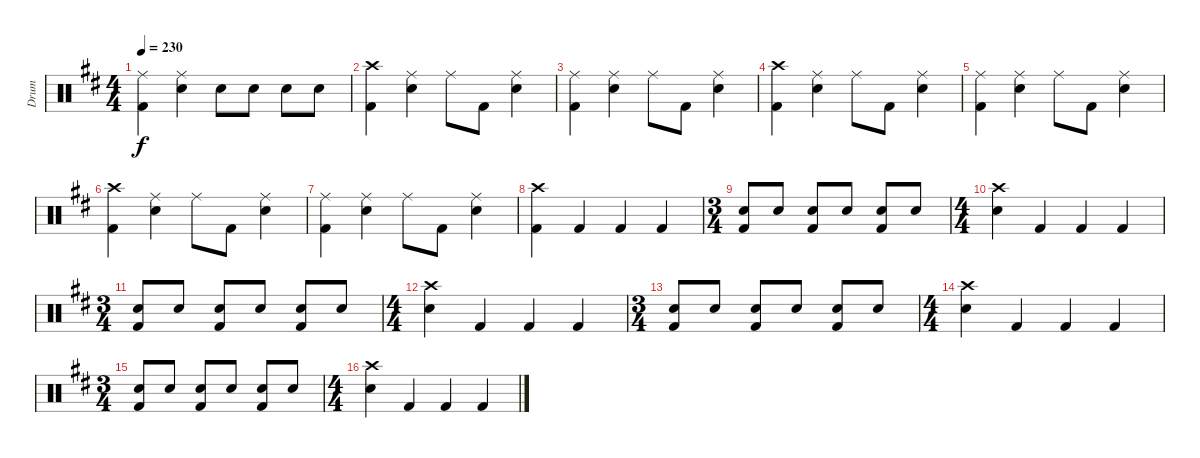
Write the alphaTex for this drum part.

\track ("Drum" "Drum") {instrument percussion}
\staff {score}
\articulation defaults
\ts (4 4)
\tempo 230
\clef neutral
\ks d
("Ride (middle)" "Kick (hit) 2").4{dy f} ("Ride (middle)" "Snare (hit) 2").4 "Snare (hit) 2".8 "Snare (hit) 2".8 "Snare (hit) 2".8 "Snare (hit) 2".8 |
("Crash high (hit)" "Kick (hit) 2").4 ("Ride (middle)" "Snare (hit) 2").4 "Ride (middle)".8 "Kick (hit) 2".8 ("Ride (middle)" "Snare (hit) 2").4 |
("Ride (middle)" "Kick (hit) 2").4 ("Ride (middle)" "Snare (hit) 2").4 "Ride (middle)".8 "Kick (hit) 2".8 ("Ride (middle)" "Snare (hit) 2").4 |
("Crash high (hit)" "Kick (hit) 2").4 ("Ride (middle)" "Snare (hit) 2").4 "Ride (middle)".8 "Kick (hit) 2".8 ("Ride (middle)" "Snare (hit) 2").4 |
("Ride (middle)" "Kick (hit) 2").4 ("Ride (middle)" "Snare (hit) 2").4 "Ride (middle)".8 "Kick (hit) 2".8 ("Ride (middle)" "Snare (hit) 2").4 |
("Crash high (hit)" "Kick (hit) 2").4 ("Ride (middle)" "Snare (hit) 2").4 "Ride (middle)".8 "Kick (hit) 2".8 ("Ride (middle)" "Snare (hit) 2").4 |
("Ride (middle)" "Kick (hit) 2").4 ("Ride (middle)" "Snare (hit) 2").4 "Ride (middle)".8 "Kick (hit) 2".8 ("Ride (middle)" "Snare (hit) 2").4 |
("Crash high (hit)" "Kick (hit) 2").4 "Kick (hit) 2".4 "Kick (hit) 2".4 "Kick (hit) 2".4 |
\ts (3 4)
("Snare (hit) 2" "Kick (hit) 2").8 "Snare (hit) 2".8 ("Snare (hit) 2" "Kick (hit) 2").8 "Snare (hit) 2".8 ("Snare (hit) 2" "Kick (hit) 2").8 "Snare (hit) 2".8 |
\ts (4 4)
("Crash high (hit)" "Snare (hit) 2").4 "Kick (hit) 2".4 "Kick (hit) 2".4 "Kick (hit) 2".4 |
\ts (3 4)
("Snare (hit) 2" "Kick (hit) 2").8 "Snare (hit) 2".8 ("Snare (hit) 2" "Kick (hit) 2").8 "Snare (hit) 2".8 ("Snare (hit) 2" "Kick (hit) 2").8 "Snare (hit) 2".8 |
\ts (4 4)
("Crash high (hit)" "Snare (hit) 2").4 "Kick (hit) 2".4 "Kick (hit) 2".4 "Kick (hit) 2".4 |
\ts (3 4)
("Snare (hit) 2" "Kick (hit) 2").8 "Snare (hit) 2".8 ("Snare (hit) 2" "Kick (hit) 2").8 "Snare (hit) 2".8 ("Snare (hit) 2" "Kick (hit) 2").8 "Snare (hit) 2".8 |
\ts (4 4)
("Crash high (hit)" "Snare (hit) 2").4 "Kick (hit) 2".4 "Kick (hit) 2".4 "Kick (hit) 2".4 |
\ts (3 4)
("Snare (hit) 2" "Kick (hit) 2").8 "Snare (hit) 2".8 ("Snare (hit) 2" "Kick (hit) 2").8 "Snare (hit) 2".8 ("Snare (hit) 2" "Kick (hit) 2").8 "Snare (hit) 2".8 |
\ts (4 4)
("Crash high (hit)" "Snare (hit) 2").4 "Kick (hit) 2".4 "Kick (hit) 2".4 "Kick (hit) 2".4
